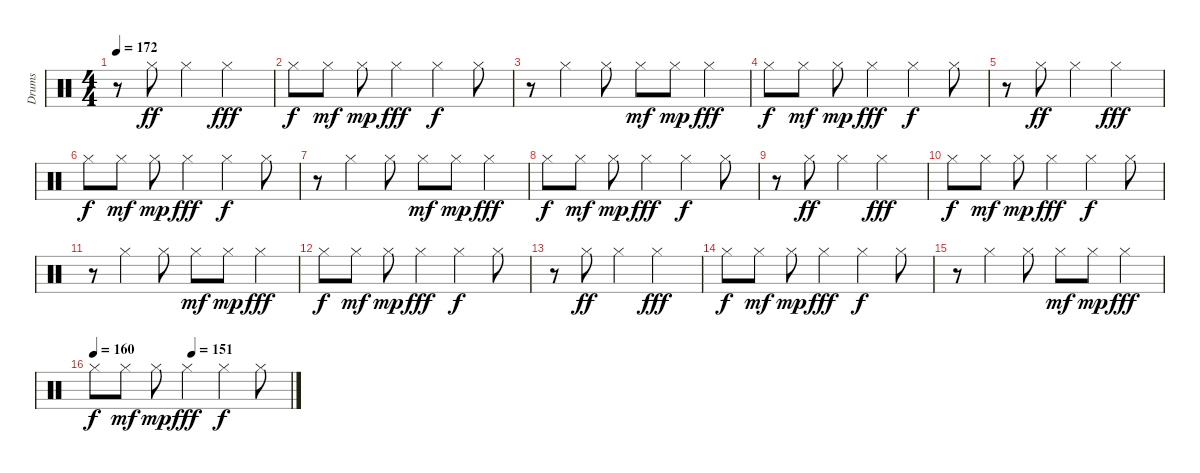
\track ("Drums" "Drums") {instrument percussion}
\staff {score}
\articulation defaults
\ts (4 4)
\tempo 172
\clef neutral
\ks c
r.8{dy f} "Hi-Hat (closed)".8{dy ff} "Hi-Hat (closed)".4 "Hi-Hat (closed)".2{dy fff} |
"Hi-Hat (closed)".8{dy f} "Hi-Hat (closed)".8{dy mf} "Hi-Hat (closed)".8{dy mp} "Hi-Hat (closed)".4{dy fff} "Hi-Hat (closed)".4{dy f} "Hi-Hat (closed)".8 |
r.8 "Hi-Hat (closed)".4 "Hi-Hat (closed)".8 "Hi-Hat (closed)".8{dy mf} "Hi-Hat (closed)".8{dy mp} "Hi-Hat (closed)".4{dy fff} |
"Hi-Hat (closed)".8{dy f} "Hi-Hat (closed)".8{dy mf} "Hi-Hat (closed)".8{dy mp} "Hi-Hat (closed)".4{dy fff} "Hi-Hat (closed)".4{dy f} "Hi-Hat (closed)".8 |
r.8 "Hi-Hat (closed)".8{dy ff} "Hi-Hat (closed)".4 "Hi-Hat (closed)".2{dy fff} |
"Hi-Hat (closed)".8{dy f} "Hi-Hat (closed)".8{dy mf} "Hi-Hat (closed)".8{dy mp} "Hi-Hat (closed)".4{dy fff} "Hi-Hat (closed)".4{dy f} "Hi-Hat (closed)".8 |
r.8 "Hi-Hat (closed)".4 "Hi-Hat (closed)".8 "Hi-Hat (closed)".8{dy mf} "Hi-Hat (closed)".8{dy mp} "Hi-Hat (closed)".4{dy fff} |
"Hi-Hat (closed)".8{dy f} "Hi-Hat (closed)".8{dy mf} "Hi-Hat (closed)".8{dy mp} "Hi-Hat (closed)".4{dy fff} "Hi-Hat (closed)".4{dy f} "Hi-Hat (closed)".8 |
r.8 "Hi-Hat (closed)".8{dy ff} "Hi-Hat (closed)".4 "Hi-Hat (closed)".2{dy fff} |
"Hi-Hat (closed)".8{dy f} "Hi-Hat (closed)".8{dy mf} "Hi-Hat (closed)".8{dy mp} "Hi-Hat (closed)".4{dy fff} "Hi-Hat (closed)".4{dy f} "Hi-Hat (closed)".8 |
r.8 "Hi-Hat (closed)".4 "Hi-Hat (closed)".8 "Hi-Hat (closed)".8{dy mf} "Hi-Hat (closed)".8{dy mp} "Hi-Hat (closed)".4{dy fff} |
"Hi-Hat (closed)".8{dy f} "Hi-Hat (closed)".8{dy mf} "Hi-Hat (closed)".8{dy mp} "Hi-Hat (closed)".4{dy fff} "Hi-Hat (closed)".4{dy f} "Hi-Hat (closed)".8 |
r.8 "Hi-Hat (closed)".8{dy ff} "Hi-Hat (closed)".4 "Hi-Hat (closed)".2{dy fff} |
"Hi-Hat (closed)".8{dy f} "Hi-Hat (closed)".8{dy mf} "Hi-Hat (closed)".8{dy mp} "Hi-Hat (closed)".4{dy fff} "Hi-Hat (closed)".4{dy f} "Hi-Hat (closed)".8 |
r.8 "Hi-Hat (closed)".4 "Hi-Hat (closed)".8 "Hi-Hat (closed)".8{dy mf} "Hi-Hat (closed)".8{dy mp} "Hi-Hat (closed)".4{dy fff} |
\tempo 160
\tempo (151 0.5)
"Hi-Hat (closed)".8{dy f} "Hi-Hat (closed)".8{dy mf} "Hi-Hat (closed)".8{dy mp} "Hi-Hat (closed)".4{dy fff} "Hi-Hat (closed)".4{dy f} "Hi-Hat (closed)".8
